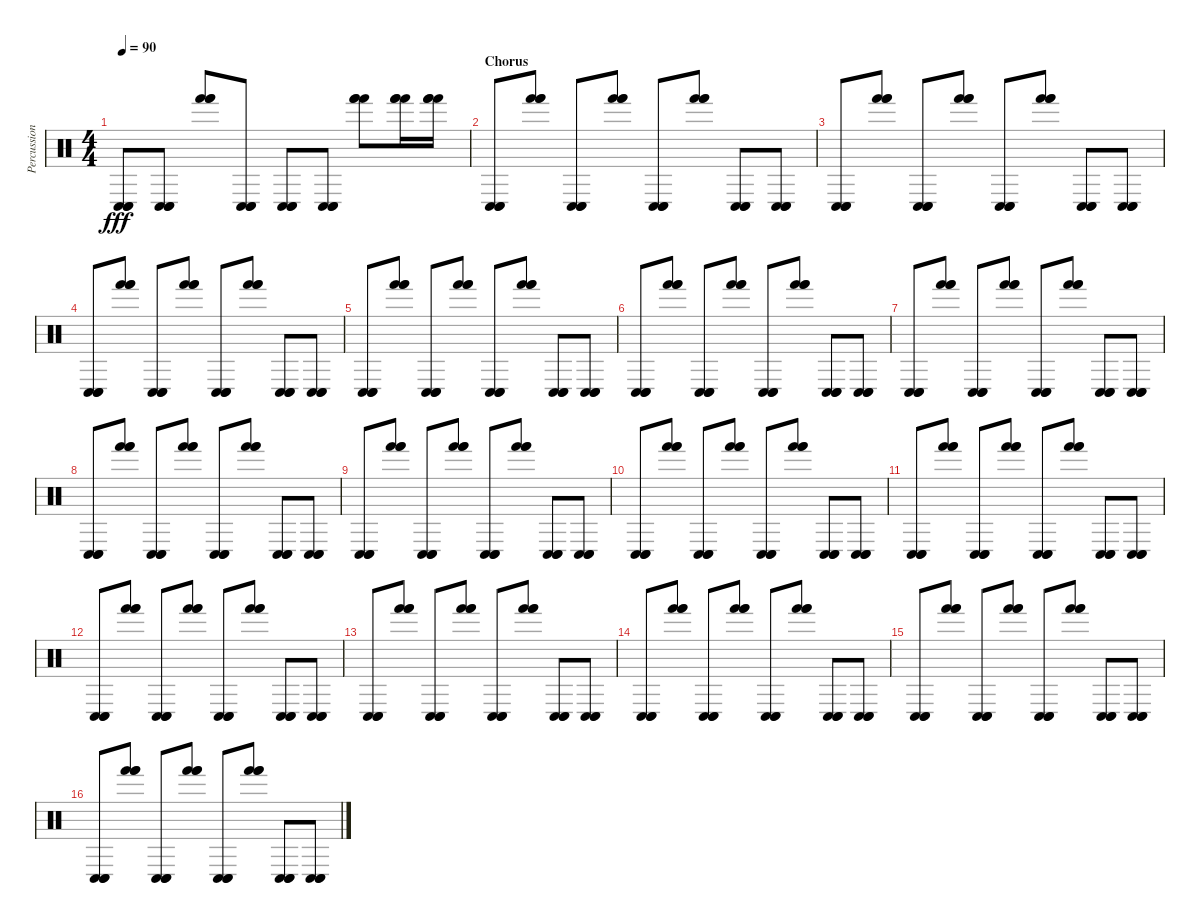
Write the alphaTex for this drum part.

\track ("Percussion" "Percussion") {instrument percussion}
\staff {score}
\articulation defaults
\ts (4 4)
\tempo 90
\clef neutral
\ks c
("Conga low (hit)" "Conga low (hit)" "Conga low (hit)").8{dy fff} ("Conga low (hit)" "Conga low (hit)" "Conga low (hit)").8 ("Hand (hit)" "Hand (hit)" "Hand (hit)").8 ("Conga low (hit)" "Conga low (hit)" "Conga low (hit)").8 ("Conga low (hit)" "Conga low (hit)" "Conga low (hit)").8 ("Conga low (hit)" "Conga low (hit)" "Conga low (hit)").8 ("Hand (hit)" "Hand (hit)" "Hand (hit)").8 ("Hand (hit)" "Hand (hit)" "Hand (hit)").16 ("Hand (hit)" "Hand (hit)" "Hand (hit)").16 |
\section ("" "Chorus")
("Conga low (hit)" "Conga low (hit)" "Conga low (hit)").8 ("Hand (hit)" "Hand (hit)" "Hand (hit)").8 ("Conga low (hit)" "Conga low (hit)" "Conga low (hit)").8 ("Hand (hit)" "Hand (hit)" "Hand (hit)").8 ("Conga low (hit)" "Conga low (hit)" "Conga low (hit)").8 ("Hand (hit)" "Hand (hit)" "Hand (hit)").8 ("Conga low (hit)" "Conga low (hit)" "Conga low (hit)").8 ("Conga low (hit)" "Conga low (hit)" "Conga low (hit)").8 |
("Conga low (hit)" "Conga low (hit)" "Conga low (hit)").8 ("Hand (hit)" "Hand (hit)" "Hand (hit)").8 ("Conga low (hit)" "Conga low (hit)" "Conga low (hit)").8 ("Hand (hit)" "Hand (hit)" "Hand (hit)").8 ("Conga low (hit)" "Conga low (hit)" "Conga low (hit)").8 ("Hand (hit)" "Hand (hit)" "Hand (hit)").8 ("Conga low (hit)" "Conga low (hit)" "Conga low (hit)").8 ("Conga low (hit)" "Conga low (hit)" "Conga low (hit)").8 |
("Conga low (hit)" "Conga low (hit)" "Conga low (hit)").8 ("Hand (hit)" "Hand (hit)" "Hand (hit)").8 ("Conga low (hit)" "Conga low (hit)" "Conga low (hit)").8 ("Hand (hit)" "Hand (hit)" "Hand (hit)").8 ("Conga low (hit)" "Conga low (hit)" "Conga low (hit)").8 ("Hand (hit)" "Hand (hit)" "Hand (hit)").8 ("Conga low (hit)" "Conga low (hit)" "Conga low (hit)").8 ("Conga low (hit)" "Conga low (hit)" "Conga low (hit)").8 |
("Conga low (hit)" "Conga low (hit)" "Conga low (hit)").8 ("Hand (hit)" "Hand (hit)" "Hand (hit)").8 ("Conga low (hit)" "Conga low (hit)" "Conga low (hit)").8 ("Hand (hit)" "Hand (hit)" "Hand (hit)").8 ("Conga low (hit)" "Conga low (hit)" "Conga low (hit)").8 ("Hand (hit)" "Hand (hit)" "Hand (hit)").8 ("Conga low (hit)" "Conga low (hit)" "Conga low (hit)").8 ("Conga low (hit)" "Conga low (hit)" "Conga low (hit)").8 |
("Conga low (hit)" "Conga low (hit)" "Conga low (hit)").8 ("Hand (hit)" "Hand (hit)" "Hand (hit)").8 ("Conga low (hit)" "Conga low (hit)" "Conga low (hit)").8 ("Hand (hit)" "Hand (hit)" "Hand (hit)").8 ("Conga low (hit)" "Conga low (hit)" "Conga low (hit)").8 ("Hand (hit)" "Hand (hit)" "Hand (hit)").8 ("Conga low (hit)" "Conga low (hit)" "Conga low (hit)").8 ("Conga low (hit)" "Conga low (hit)" "Conga low (hit)").8 |
("Conga low (hit)" "Conga low (hit)" "Conga low (hit)").8 ("Hand (hit)" "Hand (hit)" "Hand (hit)").8 ("Conga low (hit)" "Conga low (hit)" "Conga low (hit)").8 ("Hand (hit)" "Hand (hit)" "Hand (hit)").8 ("Conga low (hit)" "Conga low (hit)" "Conga low (hit)").8 ("Hand (hit)" "Hand (hit)" "Hand (hit)").8 ("Conga low (hit)" "Conga low (hit)" "Conga low (hit)").8 ("Conga low (hit)" "Conga low (hit)" "Conga low (hit)").8 |
("Conga low (hit)" "Conga low (hit)" "Conga low (hit)").8 ("Hand (hit)" "Hand (hit)" "Hand (hit)").8 ("Conga low (hit)" "Conga low (hit)" "Conga low (hit)").8 ("Hand (hit)" "Hand (hit)" "Hand (hit)").8 ("Conga low (hit)" "Conga low (hit)" "Conga low (hit)").8 ("Hand (hit)" "Hand (hit)" "Hand (hit)").8 ("Conga low (hit)" "Conga low (hit)" "Conga low (hit)").8 ("Conga low (hit)" "Conga low (hit)" "Conga low (hit)").8 |
("Conga low (hit)" "Conga low (hit)" "Conga low (hit)").8 ("Hand (hit)" "Hand (hit)" "Hand (hit)").8 ("Conga low (hit)" "Conga low (hit)" "Conga low (hit)").8 ("Hand (hit)" "Hand (hit)" "Hand (hit)").8 ("Conga low (hit)" "Conga low (hit)" "Conga low (hit)").8 ("Hand (hit)" "Hand (hit)" "Hand (hit)").8 ("Conga low (hit)" "Conga low (hit)" "Conga low (hit)").8 ("Conga low (hit)" "Conga low (hit)" "Conga low (hit)").8 |
("Conga low (hit)" "Conga low (hit)" "Conga low (hit)").8 ("Hand (hit)" "Hand (hit)" "Hand (hit)").8 ("Conga low (hit)" "Conga low (hit)" "Conga low (hit)").8 ("Hand (hit)" "Hand (hit)" "Hand (hit)").8 ("Conga low (hit)" "Conga low (hit)" "Conga low (hit)").8 ("Hand (hit)" "Hand (hit)" "Hand (hit)").8 ("Conga low (hit)" "Conga low (hit)" "Conga low (hit)").8 ("Conga low (hit)" "Conga low (hit)" "Conga low (hit)").8 |
("Conga low (hit)" "Conga low (hit)" "Conga low (hit)").8 ("Hand (hit)" "Hand (hit)" "Hand (hit)").8 ("Conga low (hit)" "Conga low (hit)" "Conga low (hit)").8 ("Hand (hit)" "Hand (hit)" "Hand (hit)").8 ("Conga low (hit)" "Conga low (hit)" "Conga low (hit)").8 ("Hand (hit)" "Hand (hit)" "Hand (hit)").8 ("Conga low (hit)" "Conga low (hit)" "Conga low (hit)").8 ("Conga low (hit)" "Conga low (hit)" "Conga low (hit)").8 |
("Conga low (hit)" "Conga low (hit)" "Conga low (hit)").8 ("Hand (hit)" "Hand (hit)" "Hand (hit)").8 ("Conga low (hit)" "Conga low (hit)" "Conga low (hit)").8 ("Hand (hit)" "Hand (hit)" "Hand (hit)").8 ("Conga low (hit)" "Conga low (hit)" "Conga low (hit)").8 ("Hand (hit)" "Hand (hit)" "Hand (hit)").8 ("Conga low (hit)" "Conga low (hit)" "Conga low (hit)").8 ("Conga low (hit)" "Conga low (hit)" "Conga low (hit)").8 |
("Conga low (hit)" "Conga low (hit)" "Conga low (hit)").8 ("Hand (hit)" "Hand (hit)" "Hand (hit)").8 ("Conga low (hit)" "Conga low (hit)" "Conga low (hit)").8 ("Hand (hit)" "Hand (hit)" "Hand (hit)").8 ("Conga low (hit)" "Conga low (hit)" "Conga low (hit)").8 ("Hand (hit)" "Hand (hit)" "Hand (hit)").8 ("Conga low (hit)" "Conga low (hit)" "Conga low (hit)").8 ("Conga low (hit)" "Conga low (hit)" "Conga low (hit)").8 |
("Conga low (hit)" "Conga low (hit)" "Conga low (hit)").8 ("Hand (hit)" "Hand (hit)" "Hand (hit)").8 ("Conga low (hit)" "Conga low (hit)" "Conga low (hit)").8 ("Hand (hit)" "Hand (hit)" "Hand (hit)").8 ("Conga low (hit)" "Conga low (hit)" "Conga low (hit)").8 ("Hand (hit)" "Hand (hit)" "Hand (hit)").8 ("Conga low (hit)" "Conga low (hit)" "Conga low (hit)").8 ("Conga low (hit)" "Conga low (hit)" "Conga low (hit)").8 |
("Conga low (hit)" "Conga low (hit)" "Conga low (hit)").8 ("Hand (hit)" "Hand (hit)" "Hand (hit)").8 ("Conga low (hit)" "Conga low (hit)" "Conga low (hit)").8 ("Hand (hit)" "Hand (hit)" "Hand (hit)").8 ("Conga low (hit)" "Conga low (hit)" "Conga low (hit)").8 ("Hand (hit)" "Hand (hit)" "Hand (hit)").8 ("Conga low (hit)" "Conga low (hit)" "Conga low (hit)").8 ("Conga low (hit)" "Conga low (hit)" "Conga low (hit)").8 |
("Conga low (hit)" "Conga low (hit)" "Conga low (hit)").8 ("Hand (hit)" "Hand (hit)" "Hand (hit)").8 ("Conga low (hit)" "Conga low (hit)" "Conga low (hit)").8 ("Hand (hit)" "Hand (hit)" "Hand (hit)").8 ("Conga low (hit)" "Conga low (hit)" "Conga low (hit)").8 ("Hand (hit)" "Hand (hit)" "Hand (hit)").8 ("Conga low (hit)" "Conga low (hit)" "Conga low (hit)").8 ("Conga low (hit)" "Conga low (hit)" "Conga low (hit)").8
